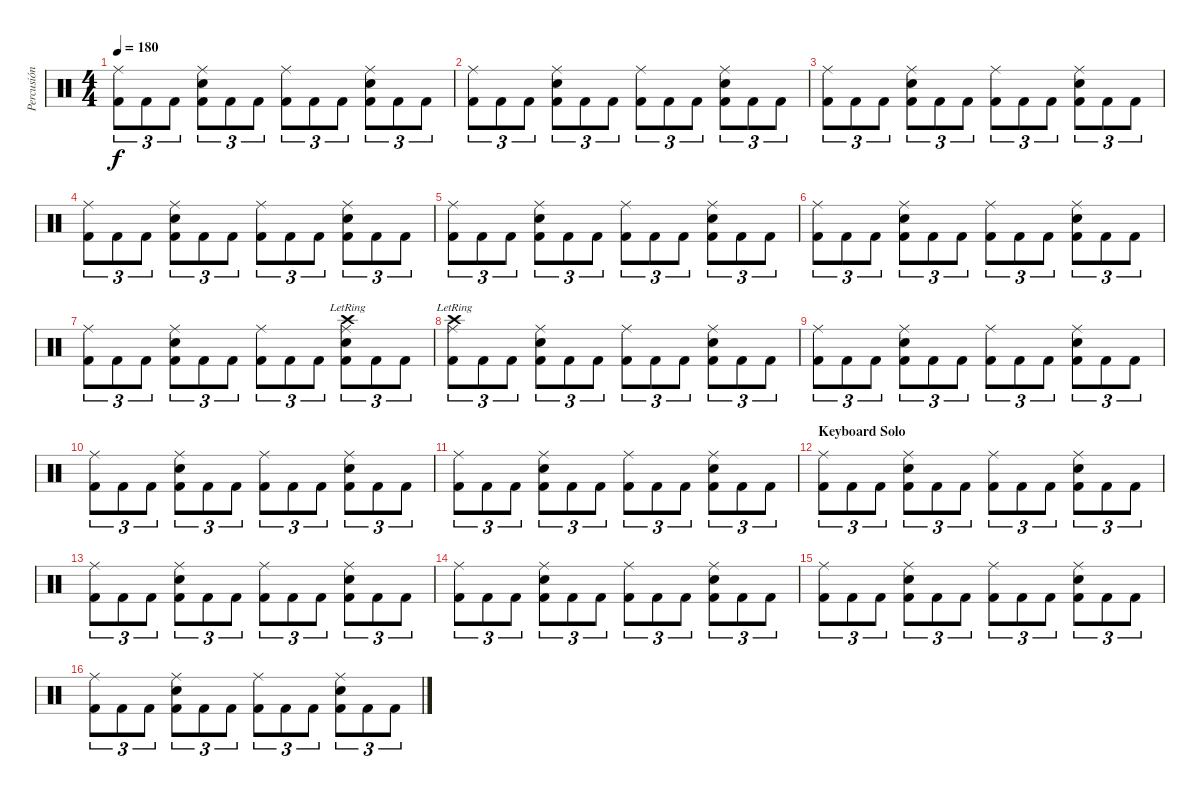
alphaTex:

\track ("Percusión" "Percusión") {instrument percussion}
\staff {score}
\articulation defaults
\ts (4 4)
\tempo 180
\clef neutral
\ks c
("Ride (middle)" "Kick (hit) 2").8{tu (3 2) dy f} "Kick (hit) 2".8{tu (3 2)} "Kick (hit) 2".8{tu (3 2)} ("Ride (middle)" "Snare (hit) 2" "Kick (hit) 2").8{tu (3 2)} "Kick (hit) 2".8{tu (3 2)} "Kick (hit) 2".8{tu (3 2)} ("Ride (middle)" "Kick (hit) 2").8{tu (3 2)} "Kick (hit) 2".8{tu (3 2)} "Kick (hit) 2".8{tu (3 2)} ("Ride (middle)" "Snare (hit) 2" "Kick (hit) 2").8{tu (3 2)} "Kick (hit) 2".8{tu (3 2)} "Kick (hit) 2".8{tu (3 2)} |
("Ride (middle)" "Kick (hit) 2").8{tu (3 2)} "Kick (hit) 2".8{tu (3 2)} "Kick (hit) 2".8{tu (3 2)} ("Ride (middle)" "Snare (hit) 2" "Kick (hit) 2").8{tu (3 2)} "Kick (hit) 2".8{tu (3 2)} "Kick (hit) 2".8{tu (3 2)} ("Ride (middle)" "Kick (hit) 2").8{tu (3 2)} "Kick (hit) 2".8{tu (3 2)} "Kick (hit) 2".8{tu (3 2)} ("Ride (middle)" "Snare (hit) 2" "Kick (hit) 2").8{tu (3 2)} "Kick (hit) 2".8{tu (3 2)} "Kick (hit) 2".8{tu (3 2)} |
("Ride (middle)" "Kick (hit) 2").8{tu (3 2)} "Kick (hit) 2".8{tu (3 2)} "Kick (hit) 2".8{tu (3 2)} ("Ride (middle)" "Snare (hit) 2" "Kick (hit) 2").8{tu (3 2)} "Kick (hit) 2".8{tu (3 2)} "Kick (hit) 2".8{tu (3 2)} ("Ride (middle)" "Kick (hit) 2").8{tu (3 2)} "Kick (hit) 2".8{tu (3 2)} "Kick (hit) 2".8{tu (3 2)} ("Ride (middle)" "Snare (hit) 2" "Kick (hit) 2").8{tu (3 2)} "Kick (hit) 2".8{tu (3 2)} "Kick (hit) 2".8{tu (3 2)} |
("Ride (middle)" "Kick (hit) 2").8{tu (3 2)} "Kick (hit) 2".8{tu (3 2)} "Kick (hit) 2".8{tu (3 2)} ("Ride (middle)" "Snare (hit) 2" "Kick (hit) 2").8{tu (3 2)} "Kick (hit) 2".8{tu (3 2)} "Kick (hit) 2".8{tu (3 2)} ("Ride (middle)" "Kick (hit) 2").8{tu (3 2)} "Kick (hit) 2".8{tu (3 2)} "Kick (hit) 2".8{tu (3 2)} ("Ride (middle)" "Snare (hit) 2" "Kick (hit) 2").8{tu (3 2)} "Kick (hit) 2".8{tu (3 2)} "Kick (hit) 2".8{tu (3 2)} |
("Ride (middle)" "Kick (hit) 2").8{tu (3 2)} "Kick (hit) 2".8{tu (3 2)} "Kick (hit) 2".8{tu (3 2)} ("Ride (middle)" "Snare (hit) 2" "Kick (hit) 2").8{tu (3 2)} "Kick (hit) 2".8{tu (3 2)} "Kick (hit) 2".8{tu (3 2)} ("Ride (middle)" "Kick (hit) 2").8{tu (3 2)} "Kick (hit) 2".8{tu (3 2)} "Kick (hit) 2".8{tu (3 2)} ("Ride (middle)" "Snare (hit) 2" "Kick (hit) 2").8{tu (3 2)} "Kick (hit) 2".8{tu (3 2)} "Kick (hit) 2".8{tu (3 2)} |
("Ride (middle)" "Kick (hit) 2").8{tu (3 2)} "Kick (hit) 2".8{tu (3 2)} "Kick (hit) 2".8{tu (3 2)} ("Ride (middle)" "Snare (hit) 2" "Kick (hit) 2").8{tu (3 2)} "Kick (hit) 2".8{tu (3 2)} "Kick (hit) 2".8{tu (3 2)} ("Ride (middle)" "Kick (hit) 2").8{tu (3 2)} "Kick (hit) 2".8{tu (3 2)} "Kick (hit) 2".8{tu (3 2)} ("Ride (middle)" "Snare (hit) 2" "Kick (hit) 2").8{tu (3 2)} "Kick (hit) 2".8{tu (3 2)} "Kick (hit) 2".8{tu (3 2)} |
("Ride (middle)" "Kick (hit) 2").8{tu (3 2)} "Kick (hit) 2".8{tu (3 2)} "Kick (hit) 2".8{tu (3 2)} ("Ride (middle)" "Snare (hit) 2" "Kick (hit) 2").8{tu (3 2)} "Kick (hit) 2".8{tu (3 2)} "Kick (hit) 2".8{tu (3 2)} ("Ride (middle)" "Kick (hit) 2").8{tu (3 2)} "Kick (hit) 2".8{tu (3 2)} "Kick (hit) 2".8{tu (3 2)} ("Crash high (hit)"{lr} "Ride (middle)" "Snare (hit) 2" "Kick (hit) 2").8{tu (3 2)} "Kick (hit) 2".8{tu (3 2)} "Kick (hit) 2".8{tu (3 2)} |
("Crash high (hit)"{lr} "Ride (middle)" "Kick (hit) 2").8{tu (3 2)} "Kick (hit) 2".8{tu (3 2)} "Kick (hit) 2".8{tu (3 2)} ("Ride (middle)" "Snare (hit) 2" "Kick (hit) 2").8{tu (3 2)} "Kick (hit) 2".8{tu (3 2)} "Kick (hit) 2".8{tu (3 2)} ("Ride (middle)" "Kick (hit) 2").8{tu (3 2)} "Kick (hit) 2".8{tu (3 2)} "Kick (hit) 2".8{tu (3 2)} ("Ride (middle)" "Snare (hit) 2" "Kick (hit) 2").8{tu (3 2)} "Kick (hit) 2".8{tu (3 2)} "Kick (hit) 2".8{tu (3 2)} |
("Ride (middle)" "Kick (hit) 2").8{tu (3 2)} "Kick (hit) 2".8{tu (3 2)} "Kick (hit) 2".8{tu (3 2)} ("Ride (middle)" "Snare (hit) 2" "Kick (hit) 2").8{tu (3 2)} "Kick (hit) 2".8{tu (3 2)} "Kick (hit) 2".8{tu (3 2)} ("Ride (middle)" "Kick (hit) 2").8{tu (3 2)} "Kick (hit) 2".8{tu (3 2)} "Kick (hit) 2".8{tu (3 2)} ("Ride (middle)" "Snare (hit) 2" "Kick (hit) 2").8{tu (3 2)} "Kick (hit) 2".8{tu (3 2)} "Kick (hit) 2".8{tu (3 2)} |
("Ride (middle)" "Kick (hit) 2").8{tu (3 2)} "Kick (hit) 2".8{tu (3 2)} "Kick (hit) 2".8{tu (3 2)} ("Ride (middle)" "Snare (hit) 2" "Kick (hit) 2").8{tu (3 2)} "Kick (hit) 2".8{tu (3 2)} "Kick (hit) 2".8{tu (3 2)} ("Ride (middle)" "Kick (hit) 2").8{tu (3 2)} "Kick (hit) 2".8{tu (3 2)} "Kick (hit) 2".8{tu (3 2)} ("Ride (middle)" "Snare (hit) 2" "Kick (hit) 2").8{tu (3 2)} "Kick (hit) 2".8{tu (3 2)} "Kick (hit) 2".8{tu (3 2)} |
("Ride (middle)" "Kick (hit) 2").8{tu (3 2)} "Kick (hit) 2".8{tu (3 2)} "Kick (hit) 2".8{tu (3 2)} ("Ride (middle)" "Snare (hit) 2" "Kick (hit) 2").8{tu (3 2)} "Kick (hit) 2".8{tu (3 2)} "Kick (hit) 2".8{tu (3 2)} ("Ride (middle)" "Kick (hit) 2").8{tu (3 2)} "Kick (hit) 2".8{tu (3 2)} "Kick (hit) 2".8{tu (3 2)} ("Ride (middle)" "Snare (hit) 2" "Kick (hit) 2").8{tu (3 2)} "Kick (hit) 2".8{tu (3 2)} "Kick (hit) 2".8{tu (3 2)} |
\section ("" "Keyboard Solo")
("Ride (middle)" "Kick (hit) 2").8{tu (3 2)} "Kick (hit) 2".8{tu (3 2)} "Kick (hit) 2".8{tu (3 2)} ("Ride (middle)" "Snare (hit) 2" "Kick (hit) 2").8{tu (3 2)} "Kick (hit) 2".8{tu (3 2)} "Kick (hit) 2".8{tu (3 2)} ("Ride (middle)" "Kick (hit) 2").8{tu (3 2)} "Kick (hit) 2".8{tu (3 2)} "Kick (hit) 2".8{tu (3 2)} ("Ride (middle)" "Snare (hit) 2" "Kick (hit) 2").8{tu (3 2)} "Kick (hit) 2".8{tu (3 2)} "Kick (hit) 2".8{tu (3 2)} |
("Ride (middle)" "Kick (hit) 2").8{tu (3 2)} "Kick (hit) 2".8{tu (3 2)} "Kick (hit) 2".8{tu (3 2)} ("Ride (middle)" "Snare (hit) 2" "Kick (hit) 2").8{tu (3 2)} "Kick (hit) 2".8{tu (3 2)} "Kick (hit) 2".8{tu (3 2)} ("Ride (middle)" "Kick (hit) 2").8{tu (3 2)} "Kick (hit) 2".8{tu (3 2)} "Kick (hit) 2".8{tu (3 2)} ("Ride (middle)" "Snare (hit) 2" "Kick (hit) 2").8{tu (3 2)} "Kick (hit) 2".8{tu (3 2)} "Kick (hit) 2".8{tu (3 2)} |
("Ride (middle)" "Kick (hit) 2").8{tu (3 2)} "Kick (hit) 2".8{tu (3 2)} "Kick (hit) 2".8{tu (3 2)} ("Ride (middle)" "Snare (hit) 2" "Kick (hit) 2").8{tu (3 2)} "Kick (hit) 2".8{tu (3 2)} "Kick (hit) 2".8{tu (3 2)} ("Ride (middle)" "Kick (hit) 2").8{tu (3 2)} "Kick (hit) 2".8{tu (3 2)} "Kick (hit) 2".8{tu (3 2)} ("Ride (middle)" "Snare (hit) 2" "Kick (hit) 2").8{tu (3 2)} "Kick (hit) 2".8{tu (3 2)} "Kick (hit) 2".8{tu (3 2)} |
("Ride (middle)" "Kick (hit) 2").8{tu (3 2)} "Kick (hit) 2".8{tu (3 2)} "Kick (hit) 2".8{tu (3 2)} ("Ride (middle)" "Snare (hit) 2" "Kick (hit) 2").8{tu (3 2)} "Kick (hit) 2".8{tu (3 2)} "Kick (hit) 2".8{tu (3 2)} ("Ride (middle)" "Kick (hit) 2").8{tu (3 2)} "Kick (hit) 2".8{tu (3 2)} "Kick (hit) 2".8{tu (3 2)} ("Ride (middle)" "Snare (hit) 2" "Kick (hit) 2").8{tu (3 2)} "Kick (hit) 2".8{tu (3 2)} "Kick (hit) 2".8{tu (3 2)} |
("Ride (middle)" "Kick (hit) 2").8{tu (3 2)} "Kick (hit) 2".8{tu (3 2)} "Kick (hit) 2".8{tu (3 2)} ("Ride (middle)" "Snare (hit) 2" "Kick (hit) 2").8{tu (3 2)} "Kick (hit) 2".8{tu (3 2)} "Kick (hit) 2".8{tu (3 2)} ("Ride (middle)" "Kick (hit) 2").8{tu (3 2)} "Kick (hit) 2".8{tu (3 2)} "Kick (hit) 2".8{tu (3 2)} ("Ride (middle)" "Snare (hit) 2" "Kick (hit) 2").8{tu (3 2)} "Kick (hit) 2".8{tu (3 2)} "Kick (hit) 2".8{tu (3 2)}
